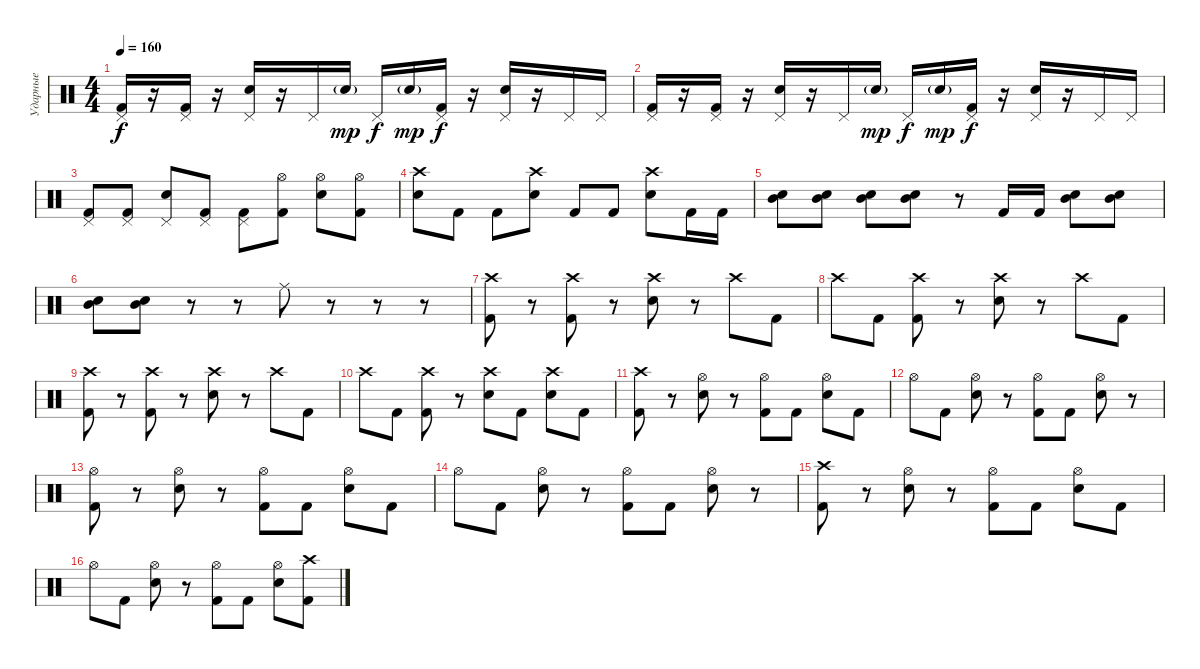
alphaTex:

\track ("Ударные" "Ударные") {instrument percussion}
\staff {score}
\articulation defaults
\ts (4 4)
\tempo 160
\clef neutral
\ks c
("Pedal Hi-Hat (hit)" "Kick (hit) 2").16{dy f} r.16 ("Pedal Hi-Hat (hit)" "Kick (hit) 2").16 r.16 ("Pedal Hi-Hat (hit)" "Snare (hit) 2").16 r.16 "Pedal Hi-Hat (hit)".16 "Snare (hit) 2"{g}.16{dy mp} "Pedal Hi-Hat (hit)".16{dy f} "Snare (hit) 2"{g}.16{dy mp} ("Pedal Hi-Hat (hit)" "Kick (hit) 2").16{dy f} r.16 ("Pedal Hi-Hat (hit)" "Snare (hit) 2").16 r.16 "Pedal Hi-Hat (hit)".16 "Pedal Hi-Hat (hit)".16 |
("Pedal Hi-Hat (hit)" "Kick (hit) 2").16 r.16 ("Pedal Hi-Hat (hit)" "Kick (hit) 2").16 r.16 ("Pedal Hi-Hat (hit)" "Snare (hit) 2").16 r.16 "Pedal Hi-Hat (hit)".16 "Snare (hit) 2"{g}.16{dy mp} "Pedal Hi-Hat (hit)".16{dy f} "Snare (hit) 2"{g}.16{dy mp} ("Pedal Hi-Hat (hit)" "Kick (hit) 2").16{dy f} r.16 ("Pedal Hi-Hat (hit)" "Snare (hit) 2").16 r.16 "Pedal Hi-Hat (hit)".16 "Pedal Hi-Hat (hit)".16 |
("Pedal Hi-Hat (hit)" "Kick (hit) 2").8 ("Pedal Hi-Hat (hit)" "Kick (hit) 2").8 ("Pedal Hi-Hat (hit)" "Snare (hit) 2").8 ("Pedal Hi-Hat (hit)" "Kick (hit) 2").8 ("Pedal Hi-Hat (hit)" "Kick (hit) 2").8 ("Hi-Hat (open)" "Kick (hit) 2").8 ("Hi-Hat (open)" "Snare (hit) 2").8 ("Hi-Hat (open)" "Kick (hit) 2").8 |
("Crash high (hit)" "Snare (hit) 2").8 "Kick (hit) 2".8 "Kick (hit) 2".8 ("Crash high (hit)" "Snare (hit) 2").8 "Kick (hit) 2".8 "Kick (hit) 2".8 ("Crash high (hit)" "Snare (hit) 2").8 "Kick (hit) 2".16 "Kick (hit) 2".16 |
("Mid Tom (hit)" "Snare (hit) 2").8 ("Mid Tom (hit)" "Snare (hit) 2").8 ("Mid Tom (hit)" "Snare (hit) 2").8 ("Mid Tom (hit)" "Snare (hit) 2").8 r.8 "Kick (hit) 2".16 "Kick (hit) 2".16 ("Mid Tom (hit)" "Snare (hit) 2").8 ("Mid Tom (hit)" "Snare (hit) 2").8 |
("Mid Tom (hit)" "Snare (hit) 2").8 ("Mid Tom (hit)" "Snare (hit) 2").8 r.8 r.8 "Ride (middle)".8 r.8 r.8 r.8 |
("Crash high (hit)" "Kick (hit) 2").8 r.8 ("Crash high (hit)" "Kick (hit) 2").8 r.8 ("Crash high (hit)" "Snare (hit) 2").8 r.8 "Crash high (hit)".8 "Kick (hit) 2".8 |
"Crash high (hit)".8 "Kick (hit) 2".8 ("Crash high (hit)" "Kick (hit) 2").8 r.8 ("Crash high (hit)" "Snare (hit) 2").8 r.8 "Crash high (hit)".8 "Kick (hit) 2".8 |
("Crash high (hit)" "Kick (hit) 2").8 r.8 ("Crash high (hit)" "Kick (hit) 2").8 r.8 ("Crash high (hit)" "Snare (hit) 2").8 r.8 "Crash high (hit)".8 "Kick (hit) 2".8 |
"Crash high (hit)".8 "Kick (hit) 2".8 ("Crash high (hit)" "Kick (hit) 2").8 r.8 ("Crash high (hit)" "Snare (hit) 2").8 "Kick (hit) 2".8 ("Crash high (hit)" "Snare (hit) 2").8 "Kick (hit) 2".8 |
("Crash high (hit)" "Kick (hit) 2").8 r.8 ("Hi-Hat (open)" "Snare (hit) 2").8 r.8 ("Hi-Hat (open)" "Kick (hit) 2").8 "Kick (hit) 2".8 ("Hi-Hat (open)" "Snare (hit) 2").8 "Kick (hit) 2".8 |
"Hi-Hat (open)".8 "Kick (hit) 2".8 ("Hi-Hat (open)" "Snare (hit) 2").8 r.8 ("Hi-Hat (open)" "Kick (hit) 2").8 "Kick (hit) 2".8 ("Hi-Hat (open)" "Snare (hit) 2").8 r.8 |
("Hi-Hat (open)" "Kick (hit) 2").8 r.8 ("Hi-Hat (open)" "Snare (hit) 2").8 r.8 ("Hi-Hat (open)" "Kick (hit) 2").8 "Kick (hit) 2".8 ("Hi-Hat (open)" "Snare (hit) 2").8 "Kick (hit) 2".8 |
"Hi-Hat (open)".8 "Kick (hit) 2".8 ("Hi-Hat (open)" "Snare (hit) 2").8 r.8 ("Hi-Hat (open)" "Kick (hit) 2").8 "Kick (hit) 2".8 ("Hi-Hat (open)" "Snare (hit) 2").8 r.8 |
("Crash high (hit)" "Kick (hit) 2").8 r.8 ("Hi-Hat (open)" "Snare (hit) 2").8 r.8 ("Hi-Hat (open)" "Kick (hit) 2").8 "Kick (hit) 2".8 ("Hi-Hat (open)" "Snare (hit) 2").8 "Kick (hit) 2".8 |
"Hi-Hat (open)".8 "Kick (hit) 2".8 ("Hi-Hat (open)" "Snare (hit) 2").8 r.8 ("Hi-Hat (open)" "Kick (hit) 2").8 "Kick (hit) 2".8 ("Hi-Hat (open)" "Snare (hit) 2").8 ("Crash high (hit)" "Kick (hit) 2").8
